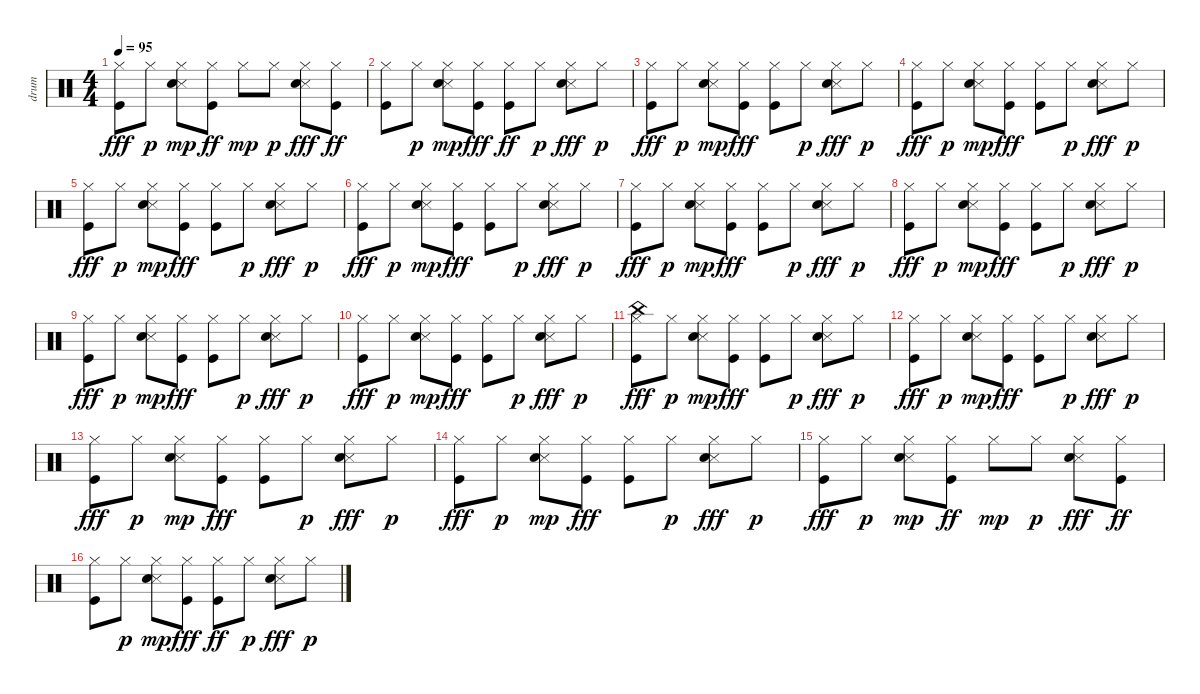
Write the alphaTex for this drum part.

\track ("drum" "drum") {instrument percussion}
\staff {score}
\articulation defaults
\ts (4 4)
\tempo 95
\clef neutral
\ks c
("Hi-Hat (closed)" "Kick (hit)").8{dy fff} "Hi-Hat (closed)".8{dy p} ("Hi-Hat (closed)" "Snare (side stick) 3" "Snare (hit) 2").8{dy mp} ("Hi-Hat (closed)" "Kick (hit)").8{dy ff} "Hi-Hat (closed)".8{dy mp} "Hi-Hat (closed)".8{dy p} ("Hi-Hat (closed)" "Snare (side stick) 3" "Snare (hit) 2").8{dy fff} ("Hi-Hat (closed)" "Kick (hit)").8{dy ff} |
("Hi-Hat (closed)" "Kick (hit)").8 "Hi-Hat (closed)".8{dy p} ("Hi-Hat (closed)" "Snare (side stick) 3" "Snare (hit) 2").8{dy mp} ("Hi-Hat (closed)" "Kick (hit)").8{dy fff} ("Hi-Hat (closed)" "Kick (hit)").8{dy ff} "Hi-Hat (closed)".8{dy p} ("Hi-Hat (closed)" "Snare (side stick) 3" "Snare (hit) 2").8{dy fff} "Hi-Hat (closed)".8{dy p} |
("Hi-Hat (closed)" "Kick (hit)").8{dy fff} "Hi-Hat (closed)".8{dy p} ("Hi-Hat (closed)" "Snare (side stick) 3" "Snare (hit) 2").8{dy mp} ("Hi-Hat (closed)" "Kick (hit)").8{dy fff} ("Hi-Hat (closed)" "Kick (hit)").8 "Hi-Hat (closed)".8{dy p} ("Hi-Hat (closed)" "Snare (side stick) 3" "Snare (hit) 2").8{dy fff} "Hi-Hat (closed)".8{dy p} |
("Hi-Hat (closed)" "Kick (hit)").8{dy fff} "Hi-Hat (closed)".8{dy p} ("Hi-Hat (closed)" "Snare (side stick) 3" "Snare (hit) 2").8{dy mp} ("Hi-Hat (closed)" "Kick (hit)").8{dy fff} ("Hi-Hat (closed)" "Kick (hit)").8 "Hi-Hat (closed)".8{dy p} ("Hi-Hat (closed)" "Snare (side stick) 3" "Snare (hit) 2").8{dy fff} "Hi-Hat (closed)".8{dy p} |
("Hi-Hat (closed)" "Kick (hit)").8{dy fff} "Hi-Hat (closed)".8{dy p} ("Hi-Hat (closed)" "Snare (side stick) 3" "Snare (hit) 2").8{dy mp} ("Hi-Hat (closed)" "Kick (hit)").8{dy fff} ("Hi-Hat (closed)" "Kick (hit)").8 "Hi-Hat (closed)".8{dy p} ("Hi-Hat (closed)" "Snare (side stick) 3" "Snare (hit) 2").8{dy fff} "Hi-Hat (closed)".8{dy p} |
("Hi-Hat (closed)" "Kick (hit)").8{dy fff} "Hi-Hat (closed)".8{dy p} ("Hi-Hat (closed)" "Snare (side stick) 3" "Snare (hit) 2").8{dy mp} ("Hi-Hat (closed)" "Kick (hit)").8{dy fff} ("Hi-Hat (closed)" "Kick (hit)").8 "Hi-Hat (closed)".8{dy p} ("Hi-Hat (closed)" "Snare (side stick) 3" "Snare (hit) 2").8{dy fff} "Hi-Hat (closed)".8{dy p} |
("Hi-Hat (closed)" "Kick (hit)").8{dy fff} "Hi-Hat (closed)".8{dy p} ("Hi-Hat (closed)" "Snare (side stick) 3" "Snare (hit) 2").8{dy mp} ("Hi-Hat (closed)" "Kick (hit)").8{dy fff} ("Hi-Hat (closed)" "Kick (hit)").8 "Hi-Hat (closed)".8{dy p} ("Hi-Hat (closed)" "Snare (side stick) 3" "Snare (hit) 2").8{dy fff} "Hi-Hat (closed)".8{dy p} |
("Hi-Hat (closed)" "Kick (hit)").8{dy fff} "Hi-Hat (closed)".8{dy p} ("Hi-Hat (closed)" "Snare (side stick) 3" "Snare (hit) 2").8{dy mp} ("Hi-Hat (closed)" "Kick (hit)").8{dy fff} ("Hi-Hat (closed)" "Kick (hit)").8 "Hi-Hat (closed)".8{dy p} ("Hi-Hat (closed)" "Snare (side stick) 3" "Snare (hit) 2").8{dy fff} "Hi-Hat (closed)".8{dy p} |
("Hi-Hat (closed)" "Kick (hit)").8{dy fff} "Hi-Hat (closed)".8{dy p} ("Hi-Hat (closed)" "Snare (side stick) 3" "Snare (hit) 2").8{dy mp} ("Hi-Hat (closed)" "Kick (hit)").8{dy fff} ("Hi-Hat (closed)" "Kick (hit)").8 "Hi-Hat (closed)".8{dy p} ("Hi-Hat (closed)" "Snare (side stick) 3" "Snare (hit) 2").8{dy fff} "Hi-Hat (closed)".8{dy p} |
("Hi-Hat (closed)" "Kick (hit)").8{dy fff} "Hi-Hat (closed)".8{dy p} ("Hi-Hat (closed)" "Snare (side stick) 3" "Snare (hit) 2").8{dy mp} ("Hi-Hat (closed)" "Kick (hit)").8{dy fff} ("Hi-Hat (closed)" "Kick (hit)").8 "Hi-Hat (closed)".8{dy p} ("Hi-Hat (closed)" "Snare (side stick) 3" "Snare (hit) 2").8{dy fff} "Hi-Hat (closed)".8{dy p} |
("China (hit)" "Hi-Hat (closed)" "Kick (hit)").8{dy fff} "Hi-Hat (closed)".8{dy p} ("Hi-Hat (closed)" "Snare (side stick) 3" "Snare (hit) 2").8{dy mp} ("Hi-Hat (closed)" "Kick (hit)").8{dy fff} ("Hi-Hat (closed)" "Kick (hit)").8 "Hi-Hat (closed)".8{dy p} ("Hi-Hat (closed)" "Snare (side stick) 3" "Snare (hit) 2").8{dy fff} "Hi-Hat (closed)".8{dy p} |
("Hi-Hat (closed)" "Kick (hit)").8{dy fff} "Hi-Hat (closed)".8{dy p} ("Hi-Hat (closed)" "Snare (side stick) 3" "Snare (hit) 2").8{dy mp} ("Hi-Hat (closed)" "Kick (hit)").8{dy fff} ("Hi-Hat (closed)" "Kick (hit)").8 "Hi-Hat (closed)".8{dy p} ("Hi-Hat (closed)" "Snare (side stick) 3" "Snare (hit) 2").8{dy fff} "Hi-Hat (closed)".8{dy p} |
("Hi-Hat (closed)" "Kick (hit)").8{dy fff} "Hi-Hat (closed)".8{dy p} ("Hi-Hat (closed)" "Snare (side stick) 3" "Snare (hit) 2").8{dy mp} ("Hi-Hat (closed)" "Kick (hit)").8{dy fff} ("Hi-Hat (closed)" "Kick (hit)").8 "Hi-Hat (closed)".8{dy p} ("Hi-Hat (closed)" "Snare (side stick) 3" "Snare (hit) 2").8{dy fff} "Hi-Hat (closed)".8{dy p} |
("Hi-Hat (closed)" "Kick (hit)").8{dy fff} "Hi-Hat (closed)".8{dy p} ("Hi-Hat (closed)" "Snare (side stick) 3" "Snare (hit) 2").8{dy mp} ("Hi-Hat (closed)" "Kick (hit)").8{dy fff} ("Hi-Hat (closed)" "Kick (hit)").8 "Hi-Hat (closed)".8{dy p} ("Hi-Hat (closed)" "Snare (side stick) 3" "Snare (hit) 2").8{dy fff} "Hi-Hat (closed)".8{dy p} |
("Hi-Hat (closed)" "Kick (hit)").8{dy fff} "Hi-Hat (closed)".8{dy p} ("Hi-Hat (closed)" "Snare (side stick) 3" "Snare (hit) 2").8{dy mp} ("Hi-Hat (closed)" "Kick (hit)").8{dy ff} "Hi-Hat (closed)".8{dy mp} "Hi-Hat (closed)".8{dy p} ("Hi-Hat (closed)" "Snare (side stick) 3" "Snare (hit) 2").8{dy fff} ("Hi-Hat (closed)" "Kick (hit)").8{dy ff} |
("Hi-Hat (closed)" "Kick (hit)").8 "Hi-Hat (closed)".8{dy p} ("Hi-Hat (closed)" "Snare (side stick) 3" "Snare (hit) 2").8{dy mp} ("Hi-Hat (closed)" "Kick (hit)").8{dy fff} ("Hi-Hat (closed)" "Kick (hit)").8{dy ff} "Hi-Hat (closed)".8{dy p} ("Hi-Hat (closed)" "Snare (side stick) 3" "Snare (hit) 2").8{dy fff} "Hi-Hat (closed)".8{dy p}
